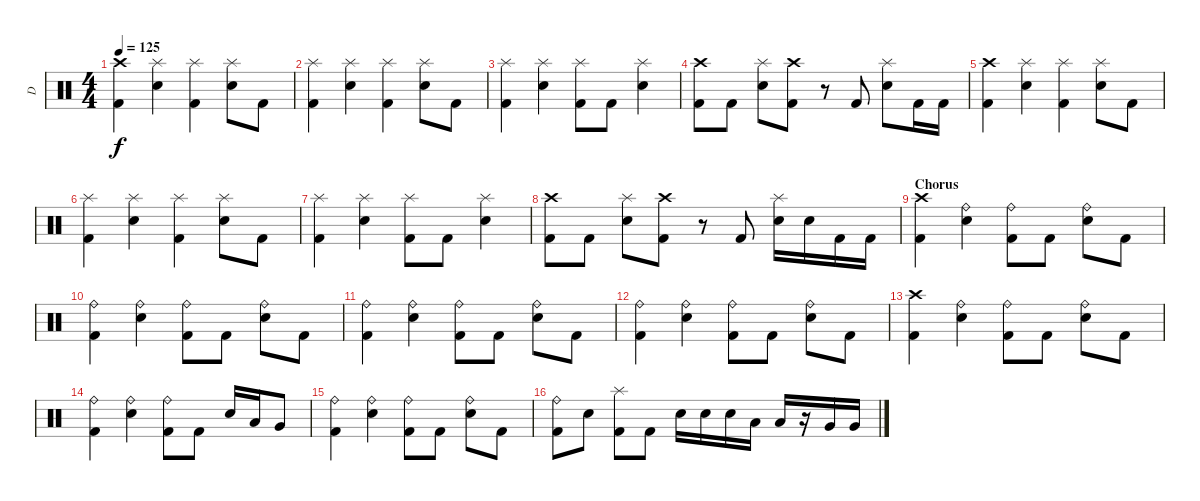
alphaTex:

\track ("D" "D") {instrument percussion}
\staff {score}
\articulation defaults
\ts (4 4)
\tempo 125
\clef neutral
\ks c
("Crash high (hit)" "Kick (hit) 2").4{dy f} ("Splash (hit)" "Electric Snare (hit)").4 ("Splash (hit)" "Kick (hit) 2").4 ("Splash (hit)" "Electric Snare (hit)").8 "Kick (hit) 2".8 |
("Splash (hit)" "Kick (hit) 2").4 ("Splash (hit)" "Electric Snare (hit)").4 ("Splash (hit)" "Kick (hit) 2").4 ("Splash (hit)" "Electric Snare (hit)").8 "Kick (hit) 2".8 |
("Splash (hit)" "Kick (hit) 2").4 ("Splash (hit)" "Electric Snare (hit)").4 ("Splash (hit)" "Kick (hit) 2").8 "Kick (hit) 2".8 ("Splash (hit)" "Electric Snare (hit)").4 |
("Crash high (hit)" "Kick (hit) 2").8 "Kick (hit) 2".8 ("Splash (hit)" "Electric Snare (hit)").8 ("Crash high (hit)" "Kick (hit) 2").8 r.8 "Kick (hit) 2".8 ("Splash (hit)" "Electric Snare (hit)").8 "Kick (hit) 2".16 "Kick (hit) 2".16 |
("Crash high (hit)" "Kick (hit) 2").4 ("Splash (hit)" "Electric Snare (hit)").4 ("Splash (hit)" "Kick (hit) 2").4 ("Splash (hit)" "Electric Snare (hit)").8 "Kick (hit) 2".8 |
("Splash (hit)" "Kick (hit) 2").4 ("Splash (hit)" "Electric Snare (hit)").4 ("Splash (hit)" "Kick (hit) 2").4 ("Splash (hit)" "Electric Snare (hit)").8 "Kick (hit) 2".8 |
("Splash (hit)" "Kick (hit) 2").4 ("Splash (hit)" "Electric Snare (hit)").4 ("Splash (hit)" "Kick (hit) 2").8 "Kick (hit) 2".8 ("Splash (hit)" "Electric Snare (hit)").4 |
("Crash high (hit)" "Kick (hit) 2").8 "Kick (hit) 2".8 ("Splash (hit)" "Electric Snare (hit)").8 ("Crash high (hit)" "Kick (hit) 2").8 r.8 "Kick (hit) 2".8 ("Splash (hit)" "Electric Snare (hit)").16 "Electric Snare (hit)".16 "Kick (hit) 2".16 "Kick (hit) 2".16 |
\section ("" "Chorus")
("Crash high (hit)" "Kick (hit) 2").4 ("Ride (bell)" "Electric Snare (hit)").4 ("Ride (bell)" "Kick (hit) 2").8 "Kick (hit) 2".8 ("Ride (bell)" "Electric Snare (hit)").8 "Kick (hit) 2".8 |
("Ride (bell)" "Kick (hit) 2").4 ("Ride (bell)" "Electric Snare (hit)").4 ("Ride (bell)" "Kick (hit) 2").8 "Kick (hit) 2".8 ("Ride (bell)" "Electric Snare (hit)").8 "Kick (hit) 2".8 |
("Ride (bell)" "Kick (hit) 2").4 ("Ride (bell)" "Electric Snare (hit)").4 ("Ride (bell)" "Kick (hit) 2").8 "Kick (hit) 2".8 ("Ride (bell)" "Electric Snare (hit)").8 "Kick (hit) 2".8 |
("Ride (bell)" "Kick (hit) 2").4 ("Ride (bell)" "Electric Snare (hit)").4 ("Ride (bell)" "Kick (hit) 2").8 "Kick (hit) 2".8 ("Ride (bell)" "Electric Snare (hit)").8 "Kick (hit) 2".8 |
("Crash high (hit)" "Kick (hit) 2").4 ("Ride (bell)" "Electric Snare (hit)").4 ("Ride (bell)" "Kick (hit) 2").8 "Kick (hit) 2".8 ("Ride (bell)" "Electric Snare (hit)").8 "Kick (hit) 2".8 |
("Ride (bell)" "Kick (hit) 2").4 ("Ride (bell)" "Electric Snare (hit)").4 ("Ride (bell)" "Kick (hit) 2").8 "Kick (hit) 2".8 "Electric Snare (hit)".16 "Low Tom (hit)".16 "Very Low Tom (hit)".8 |
("Ride (bell)" "Kick (hit) 2").4 ("Ride (bell)" "Electric Snare (hit)").4 ("Ride (bell)" "Kick (hit) 2").8 "Kick (hit) 2".8 ("Ride (bell)" "Electric Snare (hit)").8 "Kick (hit) 2".8 |
("Ride (bell)" "Kick (hit) 2").8 "Electric Snare (hit)".8 ("Splash (hit)" "Kick (hit) 2").8 "Kick (hit) 2".8 "Electric Snare (hit)".16 "Electric Snare (hit)".16 "Electric Snare (hit)".16 "Low Tom (hit)".16 "Low Tom (hit)".16 r.16 "Very Low Tom (hit)".16 "Very Low Tom (hit)".16
